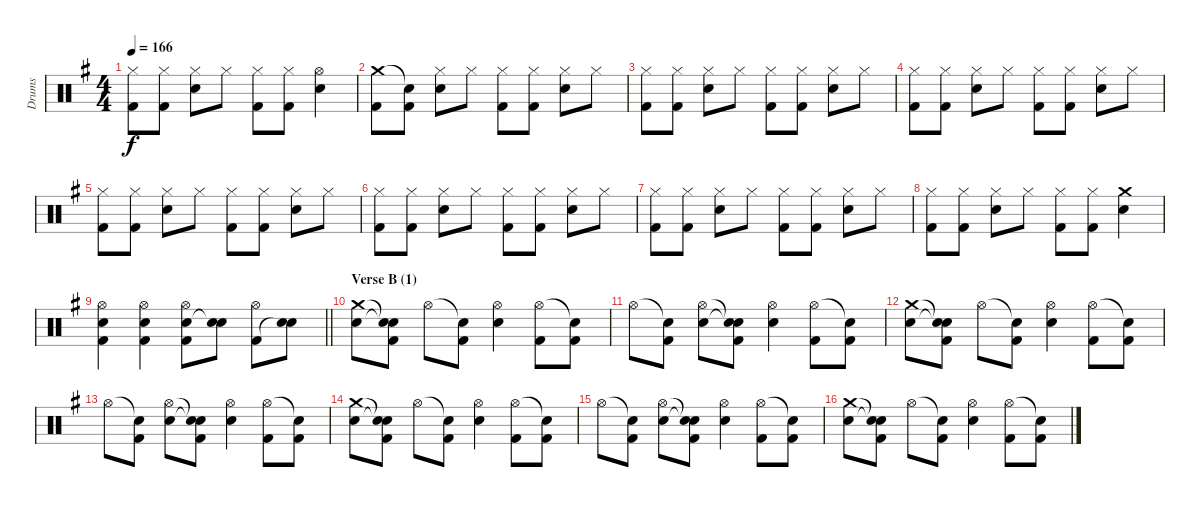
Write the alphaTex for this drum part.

\track ("Drums" "Drums") {instrument percussion}
\staff {score}
\articulation defaults
\ts (4 4)
\tempo 166
\clef neutral
\ks g
("Hi-Hat (closed)" "Kick (hit) 2").8{dy f} ("Hi-Hat (closed)" "Kick (hit) 2").8 ("Hi-Hat (closed)" "Electric Snare (hit)").8 "Hi-Hat (closed)".8 ("Hi-Hat (closed)" "Kick (hit) 2").8 ("Hi-Hat (closed)" "Kick (hit) 2").8 ("Hi-Hat (open)" "Electric Snare (hit)").4 |
("Crash medium (hit)" "Kick (hit) 2").8 ("Snare (hit)"{t} "Kick (hit) 2").8 ("Hi-Hat (closed)" "Electric Snare (hit)").8 "Hi-Hat (closed)".8 ("Hi-Hat (closed)" "Kick (hit) 2").8 ("Hi-Hat (closed)" "Kick (hit) 2").8 ("Hi-Hat (closed)" "Electric Snare (hit)").8 "Hi-Hat (closed)".8 |
("Hi-Hat (closed)" "Kick (hit) 2").8 ("Hi-Hat (closed)" "Kick (hit) 2").8 ("Hi-Hat (closed)" "Electric Snare (hit)").8 "Hi-Hat (closed)".8 ("Hi-Hat (closed)" "Kick (hit) 2").8 ("Hi-Hat (closed)" "Kick (hit) 2").8 ("Hi-Hat (closed)" "Electric Snare (hit)").8 "Hi-Hat (closed)".8 |
("Hi-Hat (closed)" "Kick (hit) 2").8 ("Hi-Hat (closed)" "Kick (hit) 2").8 ("Hi-Hat (closed)" "Electric Snare (hit)").8 "Hi-Hat (closed)".8 ("Hi-Hat (closed)" "Kick (hit) 2").8 ("Hi-Hat (closed)" "Kick (hit) 2").8 ("Hi-Hat (closed)" "Electric Snare (hit)").8 "Hi-Hat (closed)".8 |
("Hi-Hat (closed)" "Kick (hit) 2").8 ("Hi-Hat (closed)" "Kick (hit) 2").8 ("Hi-Hat (closed)" "Electric Snare (hit)").8 "Hi-Hat (closed)".8 ("Hi-Hat (closed)" "Kick (hit) 2").8 ("Hi-Hat (closed)" "Kick (hit) 2").8 ("Hi-Hat (closed)" "Electric Snare (hit)").8 "Hi-Hat (closed)".8 |
("Hi-Hat (closed)" "Kick (hit) 2").8 ("Hi-Hat (closed)" "Kick (hit) 2").8 ("Hi-Hat (closed)" "Electric Snare (hit)").8 "Hi-Hat (closed)".8 ("Hi-Hat (closed)" "Kick (hit) 2").8 ("Hi-Hat (closed)" "Kick (hit) 2").8 ("Hi-Hat (closed)" "Electric Snare (hit)").8 "Hi-Hat (closed)".8 |
("Hi-Hat (closed)" "Kick (hit) 2").8 ("Hi-Hat (closed)" "Kick (hit) 2").8 ("Hi-Hat (closed)" "Electric Snare (hit)").8 "Hi-Hat (closed)".8 ("Hi-Hat (closed)" "Kick (hit) 2").8 ("Hi-Hat (closed)" "Kick (hit) 2").8 ("Hi-Hat (closed)" "Electric Snare (hit)").8 "Hi-Hat (closed)".8 |
("Hi-Hat (closed)" "Kick (hit) 2").8 ("Hi-Hat (closed)" "Kick (hit) 2").8 ("Hi-Hat (closed)" "Electric Snare (hit)").8 "Hi-Hat (closed)".8 ("Hi-Hat (closed)" "Kick (hit) 2").8 ("Hi-Hat (closed)" "Kick (hit) 2").8 ("Crash medium (hit)" "Electric Snare (hit)").4 |
\barLineRight lightlight
("Hi-Hat (open)" "Electric Snare (hit)" "Kick (hit) 2").4 ("Hi-Hat (open)" "Electric Snare (hit)" "Kick (hit) 2").4 ("Hi-Hat (open)" "Electric Snare (hit)" "Kick (hit) 2").8 ("Electric Snare (hit)" "Snare (hit)"{t}).8 ("Hi-Hat (open)" "Kick (hit) 2").8 ("Electric Snare (hit)" "Snare (hit)"{t}).8 |
\section ("" "Verse B (1)")
("Crash medium (hit)" "Electric Snare (hit)").8 ("Snare (hit)"{t} "Snare (hit)"{t} "Kick (hit) 2").8 "Hi-Hat (open)".8 ("Snare (hit)"{t} "Kick (hit) 2").8 ("Hi-Hat (open)" "Electric Snare (hit)").4 ("Hi-Hat (open)" "Kick (hit) 2").8 ("Snare (hit)"{t} "Kick (hit) 2").8 |
"Hi-Hat (open)".8 ("Snare (hit)"{t} "Kick (hit) 2").8 ("Hi-Hat (open)" "Electric Snare (hit)").8 ("Snare (hit)"{t} "Snare (hit)"{t} "Kick (hit) 2").8 ("Hi-Hat (open)" "Electric Snare (hit)").4 ("Hi-Hat (open)" "Kick (hit) 2").8 ("Snare (hit)"{t} "Kick (hit) 2").8 |
("Crash medium (hit)" "Electric Snare (hit)").8 ("Snare (hit)"{t} "Snare (hit)"{t} "Kick (hit) 2").8 "Hi-Hat (open)".8 ("Snare (hit)"{t} "Kick (hit) 2").8 ("Hi-Hat (open)" "Electric Snare (hit)").4 ("Hi-Hat (open)" "Kick (hit) 2").8 ("Snare (hit)"{t} "Kick (hit) 2").8 |
"Hi-Hat (open)".8 ("Snare (hit)"{t} "Kick (hit) 2").8 ("Hi-Hat (open)" "Electric Snare (hit)").8 ("Snare (hit)"{t} "Snare (hit)"{t} "Kick (hit) 2").8 ("Hi-Hat (open)" "Electric Snare (hit)").4 ("Hi-Hat (open)" "Kick (hit) 2").8 ("Snare (hit)"{t} "Kick (hit) 2").8 |
("Crash medium (hit)" "Electric Snare (hit)").8 ("Snare (hit)"{t} "Snare (hit)"{t} "Kick (hit) 2").8 "Hi-Hat (open)".8 ("Snare (hit)"{t} "Kick (hit) 2").8 ("Hi-Hat (open)" "Electric Snare (hit)").4 ("Hi-Hat (open)" "Kick (hit) 2").8 ("Snare (hit)"{t} "Kick (hit) 2").8 |
"Hi-Hat (open)".8 ("Snare (hit)"{t} "Kick (hit) 2").8 ("Hi-Hat (open)" "Electric Snare (hit)").8 ("Snare (hit)"{t} "Snare (hit)"{t} "Kick (hit) 2").8 ("Hi-Hat (open)" "Electric Snare (hit)").4 ("Hi-Hat (open)" "Kick (hit) 2").8 ("Snare (hit)"{t} "Kick (hit) 2").8 |
("Crash medium (hit)" "Electric Snare (hit)").8 ("Snare (hit)"{t} "Snare (hit)"{t} "Kick (hit) 2").8 "Hi-Hat (open)".8 ("Snare (hit)"{t} "Kick (hit) 2").8 ("Hi-Hat (open)" "Electric Snare (hit)").4 ("Hi-Hat (open)" "Kick (hit) 2").8 ("Snare (hit)"{t} "Kick (hit) 2").8
